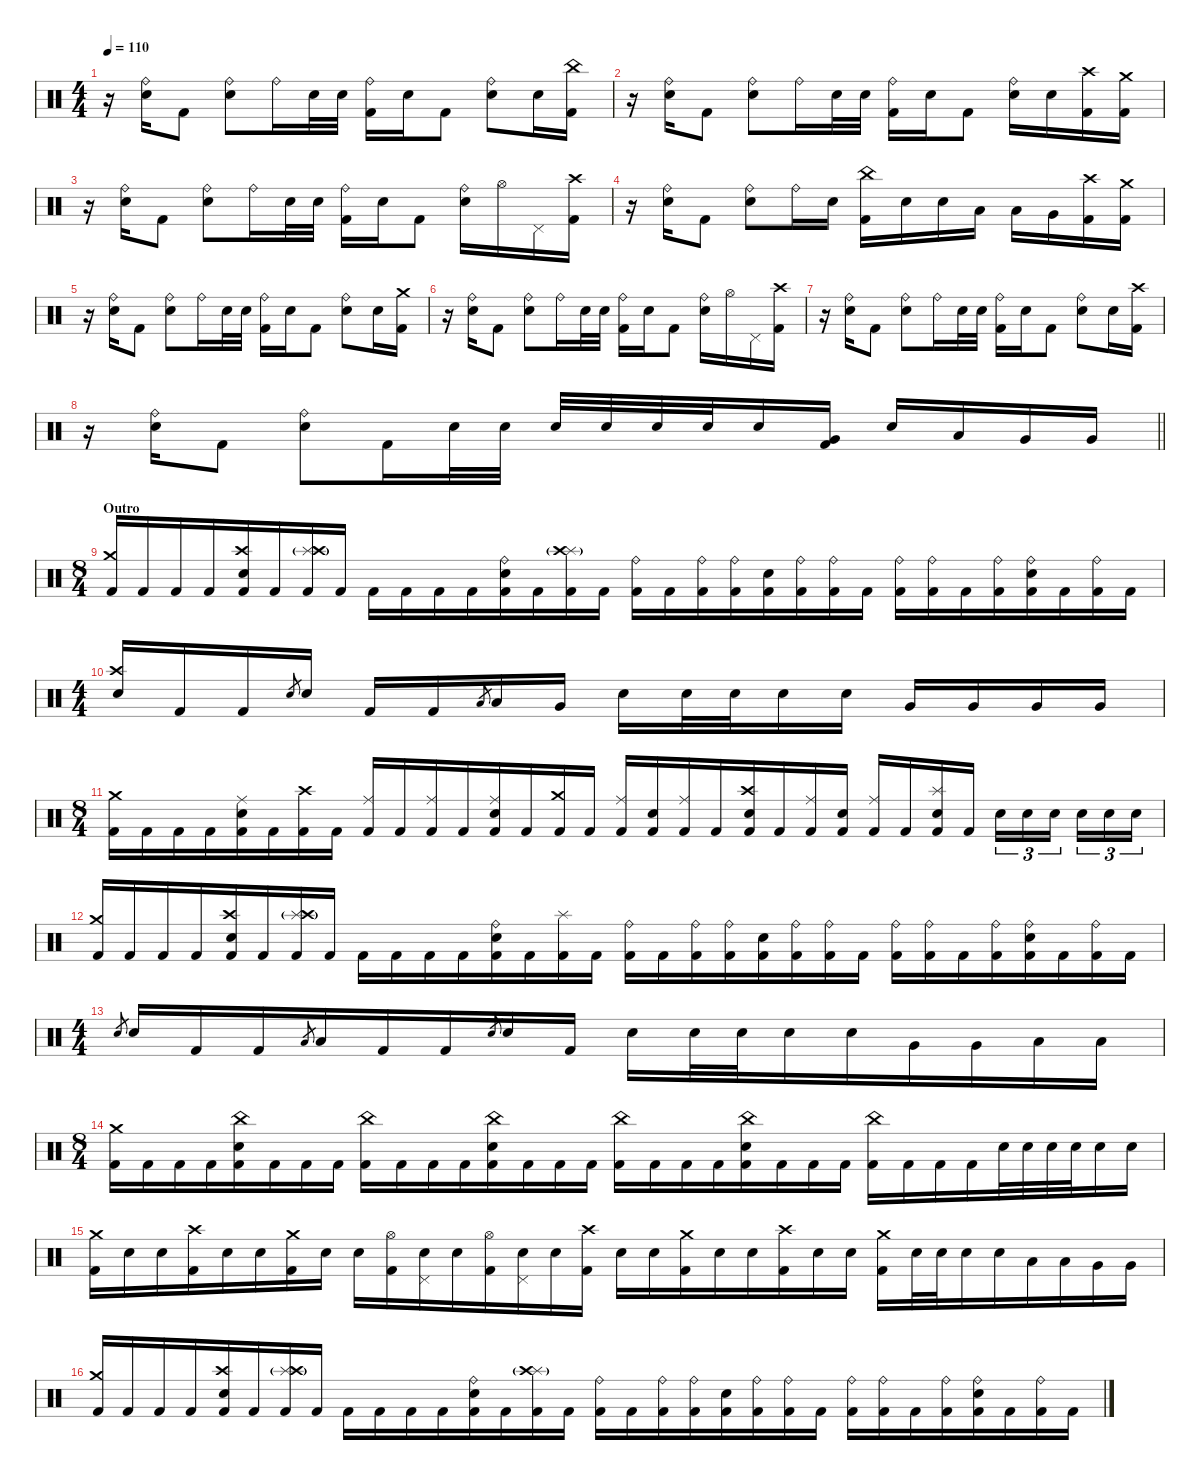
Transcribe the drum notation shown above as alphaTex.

\defaultSystemsLayout 4
\hideDynamics
\bracketExtendMode nobrackets
\singleTrackTrackNamePolicy hidden
\multiTrackTrackNamePolicy hidden
\firstSystemTrackNameMode fullname
\firstSystemTrackNameOrientation horizontal
\otherSystemsTrackNameOrientation horizontal
\track ("Drums" "drm.") {instrument percussion}
\staff {score}
\articulation defaults
\ts (4 4)
\tempo 110
\clef neutral
\ks c
r.16{dy f beam Down} ("Ride (bell)" "Snare (hit) 2").16{beam Down} "Kick (hit) 2".8{beam Down} ("Ride (bell)" "Snare (hit) 2").8{beam Down} "Ride (bell)".16{dy p beam Down} "Snare (hit) 2".32{beam Down} "Snare (hit) 2".32{dy mp beam Down} ("Ride (bell)" "Kick (hit) 2").16{dy f beam Down} "Snare (hit) 2".16{beam Down} "Kick (hit) 2".8{beam Down} ("Ride (bell)" "Snare (hit) 2").8{beam Down} "Snare (hit) 2".16{beam Down} ("China (hit)" "Kick (hit) 2").16{dy mp beam Down} |
r.16{beam Down} ("Ride (bell)" "Snare (hit) 2").16{dy f beam Down} "Kick (hit) 2".8{beam Down} ("Ride (bell)" "Snare (hit) 2").8{beam Down} "Ride (bell)".16{dy p beam Down} "Snare (hit) 2".32{beam Down} "Snare (hit) 2".32{dy mp beam Down} ("Ride (bell)" "Kick (hit) 2").16{dy f beam Down} "Snare (hit) 2".16{beam Down} "Kick (hit) 2".8{beam Down} ("Ride (bell)" "Snare (hit) 2").16{beam Down} "Snare (hit) 2".16{beam Down} ("Crash high (hit)" "Kick (hit) 2").16{beam Down} ("Crash medium (hit)" "Kick (hit) 2").16{beam Down} |
r.16{beam Down} ("Ride (bell)" "Snare (hit) 2").16{beam Down} "Kick (hit) 2".8{beam Down} ("Ride (bell)" "Snare (hit) 2").8{beam Down} "Ride (bell)".16{dy p beam Down} "Snare (hit) 2".32{beam Down} "Snare (hit) 2".32{dy mp beam Down} ("Ride (bell)" "Kick (hit) 2").16{dy f beam Down} "Snare (hit) 2".16{beam Down} "Kick (hit) 2".8{beam Down} ("Ride (bell)" "Snare (hit) 2").16{beam Down} "Hi-Hat (open)".16{beam Down} "Pedal Hi-Hat (hit)".16{beam Down} ("Crash high (hit)" "Kick (hit) 2").16{beam Down} |
r.16{beam Down} ("Ride (bell)" "Snare (hit) 2").16{beam Down} "Kick (hit) 2".8{beam Down} ("Ride (bell)" "Snare (hit) 2").8{beam Down} "Ride (bell)".16{dy p beam Down} "Snare (hit) 2".16{dy f beam Down} ("China (hit)" "Kick (hit) 2").16{dy mp beam Down} "Snare (hit) 2".16{dy f beam Down} "Snare (hit) 2".16{beam Down} "Low Tom (hit)".16{beam Down} "Low Tom (hit)".16{beam Down} "Very Low Tom (hit)".16{beam Down} ("Crash high (hit)" "Kick (hit) 2").16{beam Down} ("Crash medium (hit)" "Kick (hit) 2").16{beam Down} |
r.16{beam Down} ("Ride (bell)" "Snare (hit) 2").16{beam Down} "Kick (hit) 2".8{beam Down} ("Ride (bell)" "Snare (hit) 2").8{beam Down} "Ride (bell)".16{dy p beam Down} "Snare (hit) 2".32{beam Down} "Snare (hit) 2".32{dy mp beam Down} ("Ride (bell)" "Kick (hit) 2").16{dy f beam Down} "Snare (hit) 2".16{beam Down} "Kick (hit) 2".8{beam Down} ("Ride (bell)" "Snare (hit) 2").8{beam Down} "Snare (hit) 2".16{beam Down} ("Crash medium (hit)" "Kick (hit) 2").16{beam Down} |
r.16{beam Down} ("Ride (bell)" "Snare (hit) 2").16{beam Down} "Kick (hit) 2".8{beam Down} ("Ride (bell)" "Snare (hit) 2").8{beam Down} "Ride (bell)".16{dy p beam Down} "Snare (hit) 2".32{beam Down} "Snare (hit) 2".32{dy mp beam Down} ("Ride (bell)" "Kick (hit) 2").16{dy f beam Down} "Snare (hit) 2".16{beam Down} "Kick (hit) 2".8{beam Down} ("Ride (bell)" "Snare (hit) 2").16{beam Down} "Hi-Hat (open)".16{beam Down} "Pedal Hi-Hat (hit)".16{beam Down} ("Crash high (hit)" "Kick (hit) 2").16{beam Down} |
r.16{beam Down} ("Ride (bell)" "Snare (hit) 2").16{beam Down} "Kick (hit) 2".8{beam Down} ("Ride (bell)" "Snare (hit) 2").8{beam Down} "Ride (bell)".16{dy p beam Down} "Snare (hit) 2".32{beam Down} "Snare (hit) 2".32{dy mp beam Down} ("Ride (bell)" "Kick (hit) 2").16{dy f beam Down} "Snare (hit) 2".16{beam Down} "Kick (hit) 2".8{beam Down} ("Ride (bell)" "Snare (hit) 2").8{beam Down} "Snare (hit) 2".16{beam Down} ("Crash high (hit)" "Kick (hit) 2").16{beam Down} |
\barLineRight lightlight
r.16{beam Down} ("Ride (bell)" "Snare (hit) 2").16{beam Down} "Kick (hit) 2".8{beam Down} ("Ride (bell)" "Snare (hit) 2").8{beam Down} "Kick (hit) 2".16{beam Down} "Snare (hit) 2".32{dy pp beam Down} "Snare (hit) 2".32{dy p beam Down} "Snare (hit) 2".32{dy f beam Up} "Snare (hit) 2".32{dy pp beam Up} "Snare (hit) 2".32{beam Up} "Snare (hit) 2".32{dy p beam Up} "Snare (hit) 2".16{dy f beam Up} ("Very Low Tom (hit)" "Kick (hit) 2").16{beam Up} "Snare (hit) 2".16{beam Up} "Low Tom (hit)".16{beam Up} "Very Low Tom (hit)".16{beam Up} "Very Low Tom (hit)".16{beam Up} |
\ts (8 4)
\beaming (8 4 4 4 4)
\section ("" "Outro")
("Crash medium (hit)" "Kick (hit) 2").16{beam Up} "Kick (hit) 2".16{beam Up} "Kick (hit) 2".16{beam Up} "Kick (hit) 2".16{beam Up} ("Crash high (hit)" "Snare (hit) 2" "Kick (hit) 2").16{beam Up} "Kick (hit) 2".16{beam Up} ("Splash (hit)" "Crash high (hit)"{g} "Kick (hit) 2").16{beam Up} "Kick (hit) 2".16{beam Up} "Kick (hit) 2".16{beam Down} "Kick (hit) 2".16{beam Down} "Kick (hit) 2".16{beam Down} "Kick (hit) 2".16{beam Down} ("Ride (bell)" "Snare (hit) 2" "Kick (hit) 2").16{beam Down} "Kick (hit) 2".16{beam Down} ("Splash (hit)" "Crash high (hit)"{g} "Kick (hit) 2").16{beam Down} "Kick (hit) 2".16{beam Down} ("Ride (bell)" "Kick (hit) 2").16{dy p beam Down} "Kick (hit) 2".16{dy f beam Down} ("Ride (bell)" "Kick (hit) 2").16{dy mp beam Down} ("Ride (bell)" "Kick (hit) 2").16{dy mf beam Down} ("Snare (hit) 2" "Kick (hit) 2").16{dy f beam Down} ("Ride (bell)" "Kick (hit) 2").16{dy mp beam Down} ("Ride (bell)" "Kick (hit) 2").16{dy mf beam Down} "Kick (hit) 2".16{dy f beam Down} ("Ride (bell)" "Kick (hit) 2").16{dy mp beam Down} ("Ride (bell)" "Kick (hit) 2").16{dy mf beam Down} "Kick (hit) 2".16{dy f beam Down} ("Ride (bell)" "Kick (hit) 2").16{dy mp beam Down} ("Ride (bell)" "Snare (hit) 2" "Kick (hit) 2").16{dy mf beam Down} "Kick (hit) 2".16{dy f beam Down} ("Ride (bell)" "Kick (hit) 2").16{dy mp beam Down} "Kick (hit) 2".16{dy f beam Down} |
\ts (4 4)
\beaming (8 2 2 2 2)
("Crash high (hit)" "Snare (hit) 2").16{beam Up} "Kick (hit) 2".16{beam Up} "Kick (hit) 2".16{beam Up} "Electric Snare (hit)".8{gr dy pp beam Up} "Snare (hit) 2".16{dy f beam Up} "Kick (hit) 2".16{beam Up} "Kick (hit) 2".16{beam Up} "Low Tom (hit)".8{gr dy mf beam Up} "Low Tom (hit)".16{dy f beam Up} "Very Low Tom (hit)".16{beam Up} "Snare (hit) 2".16{beam Down} "Snare (hit) 2".32{dy p beam Down} "Snare (hit) 2".32{dy mp beam Down} "Snare (hit) 2".16{dy f beam Down} "Snare (hit) 2".16{beam Down} "Very Low Tom (hit)".16{beam Up} "Very Low Tom (hit)".16{beam Up} "Very Low Tom (hit)".16{beam Up} "Very Low Tom (hit)".16{beam Up} |
\ts (8 4)
\beaming (8 4 4 4 4)
("Crash medium (hit)" "Kick (hit) 2").16{beam Down} "Kick (hit) 2".16{beam Down} "Kick (hit) 2".16{beam Down} "Kick (hit) 2".16{beam Down} ("Ride (middle)" "Snare (hit) 2" "Kick (hit) 2").16{beam Down} "Kick (hit) 2".16{beam Down} ("Crash high (hit)" "Kick (hit) 2").16{beam Down} "Kick (hit) 2".16{beam Down} ("Ride (middle)" "Kick (hit) 2").16{beam Up} "Kick (hit) 2".16{beam Up} ("Ride (middle)" "Kick (hit) 2").16{beam Up} "Kick (hit) 2".16{beam Up} ("Ride (middle)" "Snare (hit) 2" "Kick (hit) 2").16{beam Up} "Kick (hit) 2".16{beam Up} ("Crash medium (hit)" "Kick (hit) 2").16{beam Up} "Kick (hit) 2".16{beam Up} ("Ride (middle)" "Kick (hit) 2").16{beam Up} ("Snare (hit) 2" "Kick (hit) 2").16{beam Up} ("Ride (middle)" "Kick (hit) 2").16{beam Up} "Kick (hit) 2".16{beam Up} ("Crash high (hit)" "Snare (hit) 2" "Kick (hit) 2").16{beam Up} "Kick (hit) 2".16{beam Up} ("Ride (middle)" "Kick (hit) 2").16{beam Up} ("Snare (hit) 2" "Kick (hit) 2").16{beam Up} ("Ride (middle)" "Kick (hit) 2").16{beam Up} "Kick (hit) 2".16{beam Up} ("Splash (hit)" "Snare (hit) 2" "Kick (hit) 2").16{beam Up} "Kick (hit) 2".16{beam Up} "Snare (hit) 2".16{tu (3 2) beam Down} "Snare (hit) 2".16{tu (3 2) beam Down} "Snare (hit) 2".16{tu (3 2) beam Down} "Snare (hit) 2".16{tu (3 2) beam Down} "Snare (hit) 2".16{tu (3 2) beam Down} "Snare (hit) 2".16{tu (3 2) beam Down} |
("Crash medium (hit)" "Kick (hit) 2").16{beam Up} "Kick (hit) 2".16{beam Up} "Kick (hit) 2".16{beam Up} "Kick (hit) 2".16{beam Up} ("Crash high (hit)" "Snare (hit) 2" "Kick (hit) 2").16{beam Up} "Kick (hit) 2".16{beam Up} ("Splash (hit)" "Crash high (hit)"{g} "Kick (hit) 2").16{beam Up} "Kick (hit) 2".16{beam Up} "Kick (hit) 2".16{beam Down} "Kick (hit) 2".16{beam Down} "Kick (hit) 2".16{beam Down} "Kick (hit) 2".16{beam Down} ("Ride (bell)" "Snare (hit) 2" "Kick (hit) 2").16{beam Down} "Kick (hit) 2".16{beam Down} ("Splash (hit)" "Kick (hit) 2").16{beam Down} "Kick (hit) 2".16{beam Down} ("Ride (bell)" "Kick (hit) 2").16{dy p beam Down} "Kick (hit) 2".16{dy f beam Down} ("Ride (bell)" "Kick (hit) 2").16{dy mp beam Down} ("Ride (bell)" "Kick (hit) 2").16{dy mf beam Down} ("Snare (hit) 2" "Kick (hit) 2").16{dy f beam Down} ("Ride (bell)" "Kick (hit) 2").16{dy mp beam Down} ("Ride (bell)" "Kick (hit) 2").16{dy mf beam Down} "Kick (hit) 2".16{dy f beam Down} ("Ride (bell)" "Kick (hit) 2").16{dy mp beam Down} ("Ride (bell)" "Kick (hit) 2").16{dy mf beam Down} "Kick (hit) 2".16{dy f beam Down} ("Ride (bell)" "Kick (hit) 2").16{dy mp beam Down} ("Ride (bell)" "Snare (hit) 2" "Kick (hit) 2").16{dy mf beam Down} "Kick (hit) 2".16{dy f beam Down} ("Ride (bell)" "Kick (hit) 2").16{dy mp beam Down} "Kick (hit) 2".16{dy f beam Down} |
\ts (4 4)
\beaming (8 4 4 4 4)
"Electric Snare (hit)".8{gr dy mf beam Up} "Snare (hit) 2".16{dy f beam Up} "Kick (hit) 2".16{beam Up} "Kick (hit) 2".16{beam Up} "Low Tom (hit)".8{gr dy mf beam Up} "Low Tom (hit)".16{dy f beam Up} "Kick (hit) 2".16{beam Up} "Kick (hit) 2".16{beam Up} "Electric Snare (hit)".8{gr dy mf beam Up} "Snare (hit) 2".16{dy f beam Up} "Kick (hit) 2".16{beam Up} "Snare (hit) 2".16{beam Down} "Snare (hit) 2".32{dy p beam Down} "Snare (hit) 2".32{dy mp beam Down} "Snare (hit) 2".16{dy f beam Down} "Snare (hit) 2".16{beam Down} "Very Low Tom (hit)".16{beam Down} "Very Low Tom (hit)".16{beam Down} "Low Floor Tom (hit)".16{beam Down} "Low Floor Tom (hit)".16{beam Down} |
\ts (8 4)
\beaming (8 4 4 4 4)
("Crash medium (hit)" "Kick (hit) 2").16{beam Down} "Kick (hit) 2".16{beam Down} "Kick (hit) 2".16{beam Down} "Kick (hit) 2".16{beam Down} ("China (hit)" "Snare (hit) 2" "Kick (hit) 2").16{beam Down} "Kick (hit) 2".16{beam Down} "Kick (hit) 2".16{beam Down} "Kick (hit) 2".16{beam Down} ("China (hit)" "Kick (hit) 2").16{beam Down} "Kick (hit) 2".16{beam Down} "Kick (hit) 2".16{beam Down} "Kick (hit) 2".16{beam Down} ("China (hit)" "Snare (hit) 2" "Kick (hit) 2").16{beam Down} "Kick (hit) 2".16{beam Down} "Kick (hit) 2".16{beam Down} "Kick (hit) 2".16{beam Down} ("China (hit)" "Kick (hit) 2").16{beam Down} "Kick (hit) 2".16{beam Down} "Kick (hit) 2".16{beam Down} "Kick (hit) 2".16{beam Down} ("China (hit)" "Snare (hit) 2" "Kick (hit) 2").16{beam Down} "Kick (hit) 2".16{beam Down} "Kick (hit) 2".16{beam Down} "Kick (hit) 2".16{beam Down} ("China (hit)" "Kick (hit) 2").16{beam Down} "Kick (hit) 2".16{beam Down} "Kick (hit) 2".16{beam Down} "Kick (hit) 2".16{beam Down} "Snare (hit) 2".32{dy p beam Down} "Snare (hit) 2".32{beam Down} "Snare (hit) 2".32{dy mp beam Down} "Snare (hit) 2".32{beam Down} "Snare (hit) 2".16{dy f beam Down} "Snare (hit) 2".16{beam Down} |
("Crash medium (hit)" "Kick (hit) 2").16{beam Down} "Snare (hit) 2".16{beam Down} "Snare (hit) 2".16{beam Down} ("Crash high (hit)" "Kick (hit) 2").16{beam Down} "Snare (hit) 2".16{beam Down} "Snare (hit) 2".16{beam Down} ("Crash medium (hit)" "Kick (hit) 2").16{beam Down} "Snare (hit) 2".16{beam Down} "Snare (hit) 2".16{beam Down} ("Hi-Hat (open)" "Kick (hit) 2").16{beam Down} ("Pedal Hi-Hat (hit)" "Snare (hit) 2").16{beam Down} "Snare (hit) 2".16{beam Down} ("Hi-Hat (open)" "Kick (hit) 2").16{beam Down} ("Pedal Hi-Hat (hit)" "Snare (hit) 2").16{beam Down} "Snare (hit) 2".16{beam Down} ("Crash high (hit)" "Kick (hit) 2").16{beam Down} "Snare (hit) 2".16{beam Down} "Snare (hit) 2".16{beam Down} ("Crash medium (hit)" "Kick (hit) 2").16{beam Down} "Snare (hit) 2".16{beam Down} "Snare (hit) 2".16{beam Down} ("Crash high (hit)" "Kick (hit) 2").16{beam Down} "Snare (hit) 2".16{dy mp beam Down} "Snare (hit) 2".16{beam Down} ("Crash medium (hit)" "Kick (hit) 2").16{dy f beam Down} "Snare (hit) 2".32{dy p beam Down} "Snare (hit) 2".32{dy mp beam Down} "Snare (hit) 2".16{dy f beam Down} "Snare (hit) 2".16{beam Down} "Low Tom (hit)".16{beam Down} "Low Tom (hit)".16{beam Down} "Very Low Tom (hit)".16{beam Down} "Very Low Tom (hit)".16{beam Down} |
("Crash medium (hit)" "Kick (hit) 2").16{beam Up} "Kick (hit) 2".16{beam Up} "Kick (hit) 2".16{beam Up} "Kick (hit) 2".16{beam Up} ("Crash high (hit)" "Snare (hit) 2" "Kick (hit) 2").16{beam Up} "Kick (hit) 2".16{beam Up} ("Splash (hit)" "Crash high (hit)"{g} "Kick (hit) 2").16{beam Up} "Kick (hit) 2".16{beam Up} "Kick (hit) 2".16{beam Down} "Kick (hit) 2".16{beam Down} "Kick (hit) 2".16{beam Down} "Kick (hit) 2".16{beam Down} ("Ride (bell)" "Snare (hit) 2" "Kick (hit) 2").16{beam Down} "Kick (hit) 2".16{beam Down} ("Splash (hit)" "Crash high (hit)"{g} "Kick (hit) 2").16{beam Down} "Kick (hit) 2".16{beam Down} ("Ride (bell)" "Kick (hit) 2").16{dy p beam Down} "Kick (hit) 2".16{dy f beam Down} ("Ride (bell)" "Kick (hit) 2").16{dy mp beam Down} ("Ride (bell)" "Kick (hit) 2").16{dy mf beam Down} ("Snare (hit) 2" "Kick (hit) 2").16{dy f beam Down} ("Ride (bell)" "Kick (hit) 2").16{dy mp beam Down} ("Ride (bell)" "Kick (hit) 2").16{dy mf beam Down} "Kick (hit) 2".16{dy f beam Down} ("Ride (bell)" "Kick (hit) 2").16{dy mp beam Down} ("Ride (bell)" "Kick (hit) 2").16{dy mf beam Down} "Kick (hit) 2".16{dy f beam Down} ("Ride (bell)" "Kick (hit) 2").16{dy mp beam Down} ("Ride (bell)" "Snare (hit) 2" "Kick (hit) 2").16{dy mf beam Down} "Kick (hit) 2".16{dy f beam Down} ("Ride (bell)" "Kick (hit) 2").16{dy mp beam Down} "Kick (hit) 2".16{dy f beam Down}
